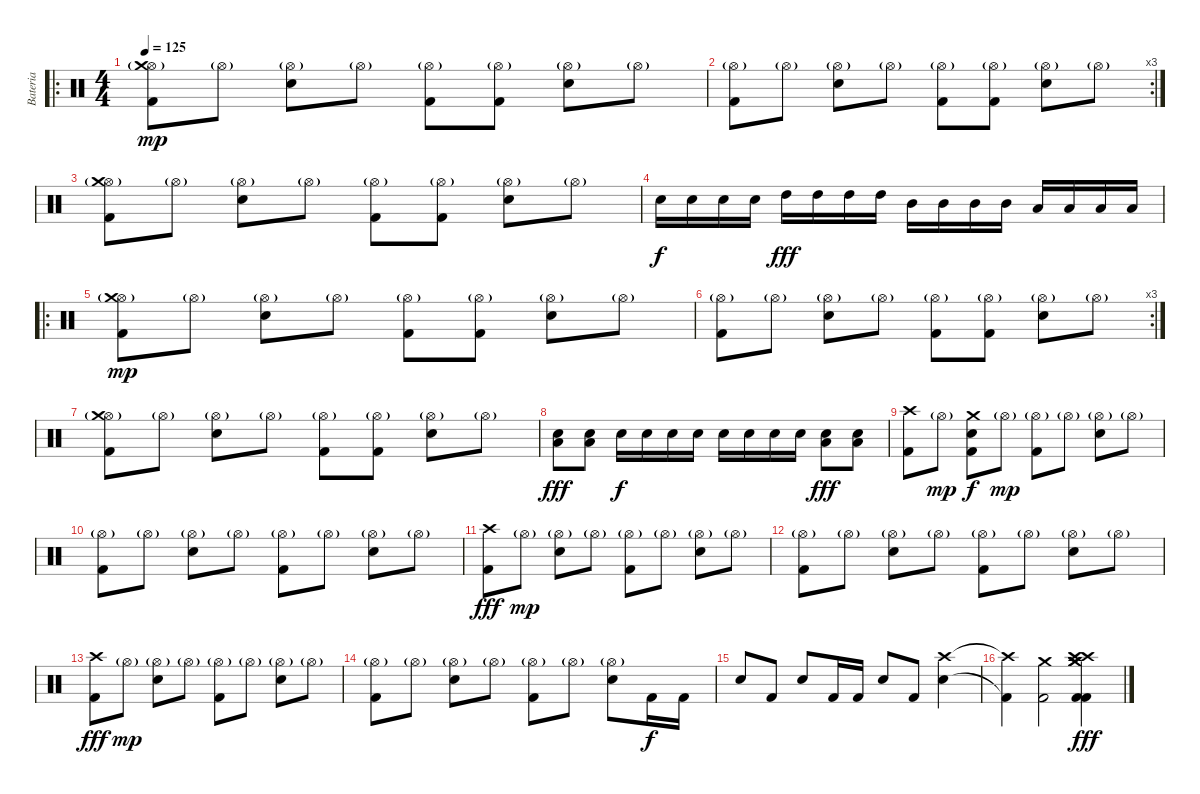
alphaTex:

\track ("Bateria" "Bateria") {instrument percussion}
\staff {score}
\articulation defaults
\ro
\ts (4 4)
\tempo 125
\clef neutral
\ks c
("Hi-Hat (open)"{g} "Kick (hit) 2" "Crash medium (hit)").8{dy mp} "Hi-Hat (open)"{g}.8 ("Hi-Hat (open)"{g} "Snare (hit) 2").8 "Hi-Hat (open)"{g}.8 ("Hi-Hat (open)"{g} "Kick (hit) 2").8 ("Hi-Hat (open)"{g} "Kick (hit) 2").8 ("Hi-Hat (open)"{g} "Snare (hit) 2").8 "Hi-Hat (open)"{g}.8 |
\rc 3
("Hi-Hat (open)"{g} "Kick (hit) 2").8 "Hi-Hat (open)"{g}.8 ("Hi-Hat (open)"{g} "Snare (hit) 2").8 "Hi-Hat (open)"{g}.8 ("Hi-Hat (open)"{g} "Kick (hit) 2").8 ("Hi-Hat (open)"{g} "Kick (hit) 2").8 ("Hi-Hat (open)"{g} "Snare (hit) 2").8 "Hi-Hat (open)"{g}.8 |
("Hi-Hat (open)"{g} "Kick (hit) 2" "Crash medium (hit)").8 "Hi-Hat (open)"{g}.8 ("Hi-Hat (open)"{g} "Snare (hit) 2").8 "Hi-Hat (open)"{g}.8 ("Hi-Hat (open)"{g} "Kick (hit) 2").8 ("Hi-Hat (open)"{g} "Kick (hit) 2").8 ("Hi-Hat (open)"{g} "Snare (hit) 2").8 "Hi-Hat (open)"{g}.8 |
"Snare (hit) 2".16{dy f} "Snare (hit) 2".16 "Snare (hit) 2".16 "Snare (hit) 2".16 "High Tom (hit)".16{dy fff} "High Tom (hit)".16 "High Tom (hit)".16 "High Tom (hit)".16 "Mid Tom (hit)".16 "Mid Tom (hit)".16 "Mid Tom (hit)".16 "Mid Tom (hit)".16 "Low Tom (hit)".16 "Low Tom (hit)".16 "Low Tom (hit)".16 "Low Tom (hit)".16 |
\ro
("Hi-Hat (open)"{g} "Kick (hit) 2" "Crash medium (hit)").8{dy mp} "Hi-Hat (open)"{g}.8 ("Hi-Hat (open)"{g} "Snare (hit) 2").8 "Hi-Hat (open)"{g}.8 ("Hi-Hat (open)"{g} "Kick (hit) 2").8 ("Hi-Hat (open)"{g} "Kick (hit) 2").8 ("Hi-Hat (open)"{g} "Snare (hit) 2").8 "Hi-Hat (open)"{g}.8 |
\rc 3
("Hi-Hat (open)"{g} "Kick (hit) 2").8 "Hi-Hat (open)"{g}.8 ("Hi-Hat (open)"{g} "Snare (hit) 2").8 "Hi-Hat (open)"{g}.8 ("Hi-Hat (open)"{g} "Kick (hit) 2").8 ("Hi-Hat (open)"{g} "Kick (hit) 2").8 ("Hi-Hat (open)"{g} "Snare (hit) 2").8 "Hi-Hat (open)"{g}.8 |
("Hi-Hat (open)"{g} "Kick (hit) 2" "Crash medium (hit)").8 "Hi-Hat (open)"{g}.8 ("Hi-Hat (open)"{g} "Snare (hit) 2").8 "Hi-Hat (open)"{g}.8 ("Hi-Hat (open)"{g} "Kick (hit) 2").8 ("Hi-Hat (open)"{g} "Kick (hit) 2").8 ("Hi-Hat (open)"{g} "Snare (hit) 2").8 "Hi-Hat (open)"{g}.8 |
("Snare (hit) 2" "Low Tom (hit)").8{dy fff} ("Snare (hit) 2" "Low Tom (hit)").8 "Snare (hit) 2".16{dy f} "Snare (hit) 2".16 "Snare (hit) 2".16 "Snare (hit) 2".16 "Snare (hit) 2".16 "Snare (hit) 2".16 "Snare (hit) 2".16 "Snare (hit) 2".16 ("Snare (hit) 2" "Low Tom (hit)").8{dy fff} ("Snare (hit) 2" "Low Tom (hit)").8 |
("Crash high (hit)" "Kick (hit) 2").8 "Hi-Hat (open)"{g}.8{dy mp} ("Crash medium (hit)" "Kick (hit) 2" "Snare (hit) 2").8{dy f} "Hi-Hat (open)"{g}.8{dy mp} ("Hi-Hat (open)"{g} "Kick (hit) 2").8 "Hi-Hat (open)"{g}.8 ("Hi-Hat (open)"{g} "Snare (hit) 2").8 "Hi-Hat (open)"{g}.8 |
("Hi-Hat (open)"{g} "Kick (hit) 2").8 "Hi-Hat (open)"{g}.8 ("Hi-Hat (open)"{g} "Snare (hit) 2").8 "Hi-Hat (open)"{g}.8 ("Hi-Hat (open)"{g} "Kick (hit) 2").8 "Hi-Hat (open)"{g}.8 ("Hi-Hat (open)"{g} "Snare (hit) 2").8 "Hi-Hat (open)"{g}.8 |
("Crash high (hit)" "Kick (hit) 2").8{dy fff} "Hi-Hat (open)"{g}.8{dy mp} ("Hi-Hat (open)"{g} "Snare (hit) 2").8 "Hi-Hat (open)"{g}.8 ("Hi-Hat (open)"{g} "Kick (hit) 2").8 "Hi-Hat (open)"{g}.8 ("Hi-Hat (open)"{g} "Snare (hit) 2").8 "Hi-Hat (open)"{g}.8 |
("Hi-Hat (open)"{g} "Kick (hit) 2").8 "Hi-Hat (open)"{g}.8 ("Hi-Hat (open)"{g} "Snare (hit) 2").8 "Hi-Hat (open)"{g}.8 ("Hi-Hat (open)"{g} "Kick (hit) 2").8 "Hi-Hat (open)"{g}.8 ("Hi-Hat (open)"{g} "Snare (hit) 2").8 "Hi-Hat (open)"{g}.8 |
("Crash high (hit)" "Kick (hit) 2").8{dy fff} "Hi-Hat (open)"{g}.8{dy mp} ("Hi-Hat (open)"{g} "Snare (hit) 2").8 "Hi-Hat (open)"{g}.8 ("Hi-Hat (open)"{g} "Kick (hit) 2").8 "Hi-Hat (open)"{g}.8 ("Hi-Hat (open)"{g} "Snare (hit) 2").8 "Hi-Hat (open)"{g}.8 |
("Hi-Hat (open)"{g} "Kick (hit) 2").8 "Hi-Hat (open)"{g}.8 ("Hi-Hat (open)"{g} "Snare (hit) 2").8 "Hi-Hat (open)"{g}.8 ("Hi-Hat (open)"{g} "Kick (hit) 2").8 "Hi-Hat (open)"{g}.8 ("Hi-Hat (open)"{g} "Snare (hit) 2").8 "Kick (hit) 2".16{dy f} "Kick (hit) 2".16 |
"Snare (hit) 2".8 "Kick (hit) 2".8 "Snare (hit) 2".8 "Kick (hit) 2".16 "Kick (hit) 2".16 "Snare (hit) 2".8 "Kick (hit) 2".8 ("Snare (hit) 2" "Crash high (hit)").4 |
("Kick (hit) 2"{t} "Crash high (hit)"{t}).4 ("Kick (hit) 2" "Crash medium (hit)").2 ("Kick (hit) 2" "Crash high (hit)" "Crash medium (hit)" "Kick (hit) 2" "Crash medium (hit)" "Crash high (hit)").4{dy fff}
